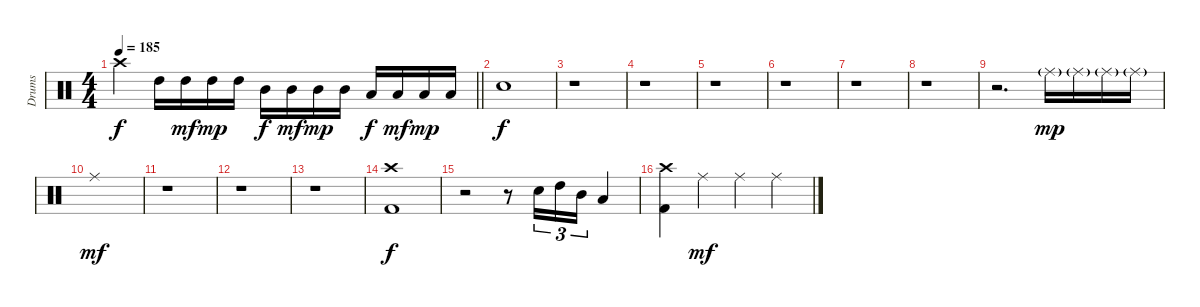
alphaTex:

\track ("Drums" "Drums") {instrument percussion}
\staff {score}
\articulation defaults
\ts (4 4)
\tempo 185
\clef neutral
\barLineRight lightlight
\ks c "Crash high (hit)".4{dy f} "High Tom (hit)".16 "High Tom (hit)".16{dy mf} "High Tom (hit)".16{dy mp} "High Tom (hit)".16 "Mid Tom (hit)".16{dy f} "Mid Tom (hit)".16{dy mf} "Mid Tom (hit)".16{dy mp} "Mid Tom (hit)".16 "Low Tom (hit)".16{dy f} "Low Tom (hit)".16{dy mf} "Low Tom (hit)".16{dy mp} "Low Tom (hit)".16
|
"Electric Snare (hit)".1{dy f} |
r.1 |
r.1 |
r.1 |
r.1 |
r.1 |
r.1 |
r.2{d} "Ride (middle)"{g}.16{dy mp} "Ride (middle)"{g}.16 "Ride (middle)"{g}.16 "Ride (middle)"{g}.16 |
"Ride (middle)".1{dy mf} |
r.1 |
r.1 |
r.1 |
("Crash high (hit)" "Kick (hit) 2").1{dy f} |
r.2 r.8 "Electric Snare (hit)".16{tu (3 2)} "High Tom (hit)".16{tu (3 2)} "Mid Tom (hit)".16{tu (3 2)} "Low Tom (hit)".4 |
("Crash high (hit)" "Kick (hit) 2").4 "Ride (middle)".4{dy mf} "Ride (middle)".4 "Ride (middle)".4
